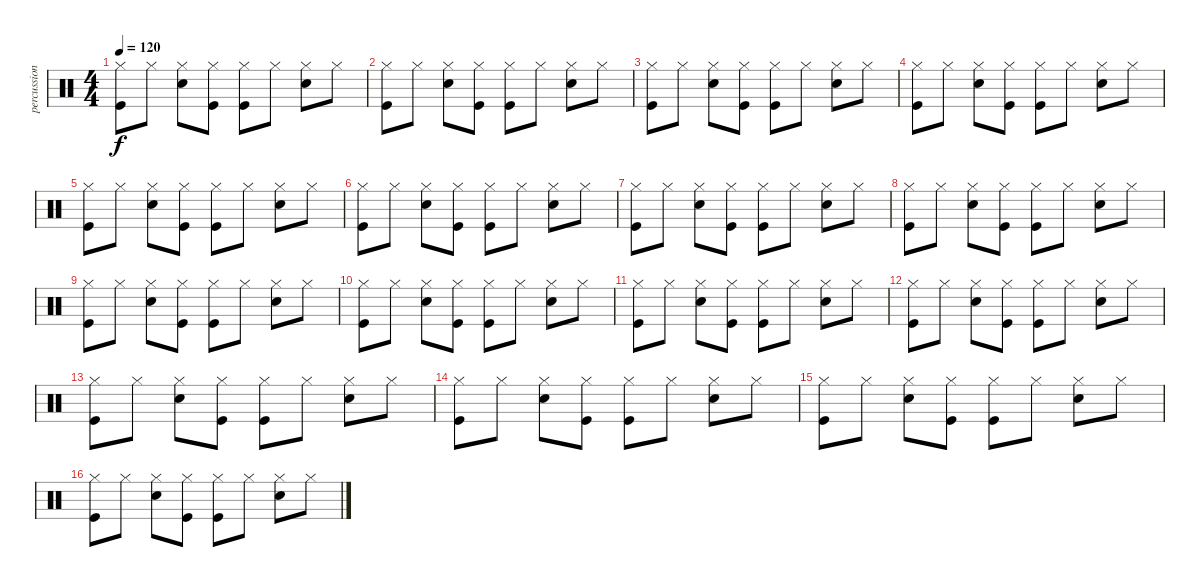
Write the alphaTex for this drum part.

\track ("percussion" "percussion") {instrument percussion}
\staff {score}
\articulation defaults
\ts (4 4)
\tempo 120
\clef neutral
\ks c
("Hi-Hat (closed)" "Kick (hit)").8{dy f} "Hi-Hat (closed)".8 ("Hi-Hat (closed)" "Electric Snare (hit)").8 ("Hi-Hat (closed)" "Kick (hit)").8 ("Hi-Hat (closed)" "Kick (hit)").8 "Hi-Hat (closed)".8 ("Hi-Hat (closed)" "Electric Snare (hit)").8 "Hi-Hat (closed)".8 |
("Hi-Hat (closed)" "Kick (hit)").8 "Hi-Hat (closed)".8 ("Hi-Hat (closed)" "Electric Snare (hit)").8 ("Hi-Hat (closed)" "Kick (hit)").8 ("Hi-Hat (closed)" "Kick (hit)").8 "Hi-Hat (closed)".8 ("Hi-Hat (closed)" "Electric Snare (hit)").8 "Hi-Hat (closed)".8 |
("Hi-Hat (closed)" "Kick (hit)").8 "Hi-Hat (closed)".8 ("Hi-Hat (closed)" "Electric Snare (hit)").8 ("Hi-Hat (closed)" "Kick (hit)").8 ("Hi-Hat (closed)" "Kick (hit)").8 "Hi-Hat (closed)".8 ("Hi-Hat (closed)" "Electric Snare (hit)").8 "Hi-Hat (closed)".8 |
("Hi-Hat (closed)" "Kick (hit)").8 "Hi-Hat (closed)".8 ("Hi-Hat (closed)" "Electric Snare (hit)").8 ("Hi-Hat (closed)" "Kick (hit)").8 ("Hi-Hat (closed)" "Kick (hit)").8 "Hi-Hat (closed)".8 ("Hi-Hat (closed)" "Electric Snare (hit)").8 "Hi-Hat (closed)".8 |
("Hi-Hat (closed)" "Kick (hit)").8 "Hi-Hat (closed)".8 ("Hi-Hat (closed)" "Electric Snare (hit)").8 ("Hi-Hat (closed)" "Kick (hit)").8 ("Hi-Hat (closed)" "Kick (hit)").8 "Hi-Hat (closed)".8 ("Hi-Hat (closed)" "Electric Snare (hit)").8 "Hi-Hat (closed)".8 |
("Hi-Hat (closed)" "Kick (hit)").8 "Hi-Hat (closed)".8 ("Hi-Hat (closed)" "Electric Snare (hit)").8 ("Hi-Hat (closed)" "Kick (hit)").8 ("Hi-Hat (closed)" "Kick (hit)").8 "Hi-Hat (closed)".8 ("Hi-Hat (closed)" "Electric Snare (hit)").8 "Hi-Hat (closed)".8 |
("Hi-Hat (closed)" "Kick (hit)").8 "Hi-Hat (closed)".8 ("Hi-Hat (closed)" "Electric Snare (hit)").8 ("Hi-Hat (closed)" "Kick (hit)").8 ("Hi-Hat (closed)" "Kick (hit)").8 "Hi-Hat (closed)".8 ("Hi-Hat (closed)" "Electric Snare (hit)").8 "Hi-Hat (closed)".8 |
("Hi-Hat (closed)" "Kick (hit)").8 "Hi-Hat (closed)".8 ("Hi-Hat (closed)" "Electric Snare (hit)").8 ("Hi-Hat (closed)" "Kick (hit)").8 ("Hi-Hat (closed)" "Kick (hit)").8 "Hi-Hat (closed)".8 ("Hi-Hat (closed)" "Electric Snare (hit)").8 "Hi-Hat (closed)".8 |
("Hi-Hat (closed)" "Kick (hit)").8 "Hi-Hat (closed)".8 ("Hi-Hat (closed)" "Electric Snare (hit)").8 ("Hi-Hat (closed)" "Kick (hit)").8 ("Hi-Hat (closed)" "Kick (hit)").8 "Hi-Hat (closed)".8 ("Hi-Hat (closed)" "Electric Snare (hit)").8 "Hi-Hat (closed)".8 |
("Hi-Hat (closed)" "Kick (hit)").8 "Hi-Hat (closed)".8 ("Hi-Hat (closed)" "Electric Snare (hit)").8 ("Hi-Hat (closed)" "Kick (hit)").8 ("Hi-Hat (closed)" "Kick (hit)").8 "Hi-Hat (closed)".8 ("Hi-Hat (closed)" "Electric Snare (hit)").8 "Hi-Hat (closed)".8 |
("Hi-Hat (closed)" "Kick (hit)").8 "Hi-Hat (closed)".8 ("Hi-Hat (closed)" "Electric Snare (hit)").8 ("Hi-Hat (closed)" "Kick (hit)").8 ("Hi-Hat (closed)" "Kick (hit)").8 "Hi-Hat (closed)".8 ("Hi-Hat (closed)" "Electric Snare (hit)").8 "Hi-Hat (closed)".8 |
("Hi-Hat (closed)" "Kick (hit)").8 "Hi-Hat (closed)".8 ("Hi-Hat (closed)" "Electric Snare (hit)").8 ("Hi-Hat (closed)" "Kick (hit)").8 ("Hi-Hat (closed)" "Kick (hit)").8 "Hi-Hat (closed)".8 ("Hi-Hat (closed)" "Electric Snare (hit)").8 "Hi-Hat (closed)".8 |
("Hi-Hat (closed)" "Kick (hit)").8 "Hi-Hat (closed)".8 ("Hi-Hat (closed)" "Electric Snare (hit)").8 ("Hi-Hat (closed)" "Kick (hit)").8 ("Hi-Hat (closed)" "Kick (hit)").8 "Hi-Hat (closed)".8 ("Hi-Hat (closed)" "Electric Snare (hit)").8 "Hi-Hat (closed)".8 |
("Hi-Hat (closed)" "Kick (hit)").8 "Hi-Hat (closed)".8 ("Hi-Hat (closed)" "Electric Snare (hit)").8 ("Hi-Hat (closed)" "Kick (hit)").8 ("Hi-Hat (closed)" "Kick (hit)").8 "Hi-Hat (closed)".8 ("Hi-Hat (closed)" "Electric Snare (hit)").8 "Hi-Hat (closed)".8 |
("Hi-Hat (closed)" "Kick (hit)").8 "Hi-Hat (closed)".8 ("Hi-Hat (closed)" "Electric Snare (hit)").8 ("Hi-Hat (closed)" "Kick (hit)").8 ("Hi-Hat (closed)" "Kick (hit)").8 "Hi-Hat (closed)".8 ("Hi-Hat (closed)" "Electric Snare (hit)").8 "Hi-Hat (closed)".8 |
("Hi-Hat (closed)" "Kick (hit)").8 "Hi-Hat (closed)".8 ("Hi-Hat (closed)" "Electric Snare (hit)").8 ("Hi-Hat (closed)" "Kick (hit)").8 ("Hi-Hat (closed)" "Kick (hit)").8 "Hi-Hat (closed)".8 ("Hi-Hat (closed)" "Electric Snare (hit)").8 "Hi-Hat (closed)".8
